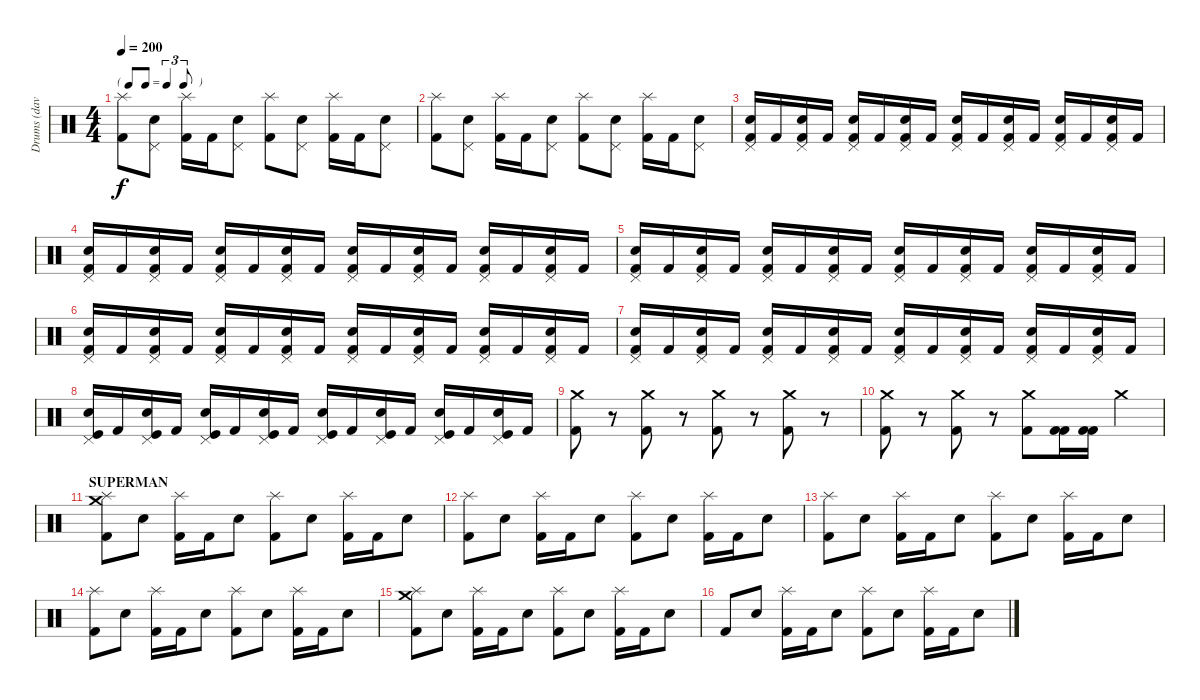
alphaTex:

\track ("Drums (dave)" "Drums (dav") {instrument percussion}
\staff {score}
\articulation defaults
\ts (4 4)
\tf triplet8th
\tempo 200
\clef neutral
\ks c
("Splash (hit)" "Kick (hit) 2").8{dy f} ("Pedal Hi-Hat (hit)" "Snare (hit) 2").8 ("Splash (hit)" "Kick (hit) 2").16 "Kick (hit) 2".16 ("Pedal Hi-Hat (hit)" "Snare (hit) 2").8 ("Splash (hit)" "Kick (hit) 2").8 ("Pedal Hi-Hat (hit)" "Snare (hit) 2").8 ("Splash (hit)" "Kick (hit) 2").16 "Kick (hit) 2".16 ("Pedal Hi-Hat (hit)" "Snare (hit) 2").8 |
("Splash (hit)" "Kick (hit) 2").8 ("Pedal Hi-Hat (hit)" "Snare (hit) 2").8 ("Splash (hit)" "Kick (hit) 2").16 "Kick (hit) 2".16 ("Pedal Hi-Hat (hit)" "Snare (hit) 2").8 ("Splash (hit)" "Kick (hit) 2").8 ("Pedal Hi-Hat (hit)" "Snare (hit) 2").8 ("Splash (hit)" "Kick (hit) 2").16 "Kick (hit) 2".16 ("Pedal Hi-Hat (hit)" "Snare (hit) 2").8 |
("Snare (hit) 2" "Pedal Hi-Hat (hit)" "Kick (hit) 2").16 "Kick (hit) 2".16 ("Snare (hit) 2" "Pedal Hi-Hat (hit)" "Kick (hit) 2").16 "Kick (hit) 2".16 ("Snare (hit) 2" "Pedal Hi-Hat (hit)" "Kick (hit) 2").16 "Kick (hit) 2".16 ("Snare (hit) 2" "Pedal Hi-Hat (hit)" "Kick (hit) 2").16 "Kick (hit) 2".16 ("Snare (hit) 2" "Pedal Hi-Hat (hit)" "Kick (hit) 2").16 "Kick (hit) 2".16 ("Snare (hit) 2" "Pedal Hi-Hat (hit)" "Kick (hit) 2").16 "Kick (hit) 2".16 ("Snare (hit) 2" "Pedal Hi-Hat (hit)" "Kick (hit) 2").16 "Kick (hit) 2".16 ("Snare (hit) 2" "Pedal Hi-Hat (hit)" "Kick (hit) 2").16 "Kick (hit) 2".16 |
("Snare (hit) 2" "Pedal Hi-Hat (hit)" "Kick (hit) 2").16 "Kick (hit) 2".16 ("Snare (hit) 2" "Pedal Hi-Hat (hit)" "Kick (hit) 2").16 "Kick (hit) 2".16 ("Snare (hit) 2" "Pedal Hi-Hat (hit)" "Kick (hit) 2").16 "Kick (hit) 2".16 ("Snare (hit) 2" "Pedal Hi-Hat (hit)" "Kick (hit) 2").16 "Kick (hit) 2".16 ("Snare (hit) 2" "Pedal Hi-Hat (hit)" "Kick (hit) 2").16 "Kick (hit) 2".16 ("Snare (hit) 2" "Pedal Hi-Hat (hit)" "Kick (hit) 2").16 "Kick (hit) 2".16 ("Snare (hit) 2" "Pedal Hi-Hat (hit)" "Kick (hit) 2").16 "Kick (hit) 2".16 ("Snare (hit) 2" "Pedal Hi-Hat (hit)" "Kick (hit) 2").16 "Kick (hit) 2".16 |
("Snare (hit) 2" "Pedal Hi-Hat (hit)" "Kick (hit) 2").16 "Kick (hit) 2".16 ("Snare (hit) 2" "Pedal Hi-Hat (hit)" "Kick (hit) 2").16 "Kick (hit) 2".16 ("Snare (hit) 2" "Pedal Hi-Hat (hit)" "Kick (hit) 2").16 "Kick (hit) 2".16 ("Snare (hit) 2" "Pedal Hi-Hat (hit)" "Kick (hit) 2").16 "Kick (hit) 2".16 ("Snare (hit) 2" "Pedal Hi-Hat (hit)" "Kick (hit) 2").16 "Kick (hit) 2".16 ("Snare (hit) 2" "Pedal Hi-Hat (hit)" "Kick (hit) 2").16 "Kick (hit) 2".16 ("Snare (hit) 2" "Pedal Hi-Hat (hit)" "Kick (hit) 2").16 "Kick (hit) 2".16 ("Snare (hit) 2" "Pedal Hi-Hat (hit)" "Kick (hit) 2").16 "Kick (hit) 2".16 |
("Snare (hit) 2" "Pedal Hi-Hat (hit)" "Kick (hit) 2").16 "Kick (hit) 2".16 ("Snare (hit) 2" "Pedal Hi-Hat (hit)" "Kick (hit) 2").16 "Kick (hit) 2".16 ("Snare (hit) 2" "Pedal Hi-Hat (hit)" "Kick (hit) 2").16 "Kick (hit) 2".16 ("Snare (hit) 2" "Pedal Hi-Hat (hit)" "Kick (hit) 2").16 "Kick (hit) 2".16 ("Snare (hit) 2" "Pedal Hi-Hat (hit)" "Kick (hit) 2").16 "Kick (hit) 2".16 ("Snare (hit) 2" "Pedal Hi-Hat (hit)" "Kick (hit) 2").16 "Kick (hit) 2".16 ("Snare (hit) 2" "Pedal Hi-Hat (hit)" "Kick (hit) 2").16 "Kick (hit) 2".16 ("Snare (hit) 2" "Pedal Hi-Hat (hit)" "Kick (hit) 2").16 "Kick (hit) 2".16 |
("Snare (hit) 2" "Pedal Hi-Hat (hit)" "Kick (hit) 2").16 "Kick (hit) 2".16 ("Snare (hit) 2" "Pedal Hi-Hat (hit)" "Kick (hit) 2").16 "Kick (hit) 2".16 ("Snare (hit) 2" "Pedal Hi-Hat (hit)" "Kick (hit) 2").16 "Kick (hit) 2".16 ("Snare (hit) 2" "Pedal Hi-Hat (hit)" "Kick (hit) 2").16 "Kick (hit) 2".16 ("Snare (hit) 2" "Pedal Hi-Hat (hit)" "Kick (hit) 2").16 "Kick (hit) 2".16 ("Snare (hit) 2" "Pedal Hi-Hat (hit)" "Kick (hit) 2").16 "Kick (hit) 2".16 ("Snare (hit) 2" "Pedal Hi-Hat (hit)" "Kick (hit) 2").16 "Kick (hit) 2".16 ("Snare (hit) 2" "Pedal Hi-Hat (hit)" "Kick (hit) 2").16 "Kick (hit) 2".16 |
("Snare (hit) 2" "Pedal Hi-Hat (hit)" "Kick (hit)").16 "Kick (hit) 2".16 ("Snare (hit) 2" "Pedal Hi-Hat (hit)" "Kick (hit)").16 "Kick (hit) 2".16 ("Snare (hit) 2" "Pedal Hi-Hat (hit)" "Kick (hit)").16 "Kick (hit) 2".16 ("Snare (hit) 2" "Pedal Hi-Hat (hit)" "Kick (hit)").16 "Kick (hit) 2".16 ("Snare (hit) 2" "Pedal Hi-Hat (hit)" "Kick (hit)").16 "Kick (hit) 2".16 ("Snare (hit) 2" "Pedal Hi-Hat (hit)" "Kick (hit)").16 "Kick (hit) 2".16 ("Snare (hit) 2" "Pedal Hi-Hat (hit)" "Kick (hit)").16 "Kick (hit) 2".16 ("Snare (hit) 2" "Pedal Hi-Hat (hit)" "Kick (hit)").16 "Kick (hit) 2".16 |
("Crash medium (hit)" "Kick (hit) 2").8 r.8 ("Crash medium (hit)" "Kick (hit) 2").8 r.8 ("Crash medium (hit)" "Kick (hit) 2").8 r.8 ("Crash medium (hit)" "Kick (hit) 2").8 r.8 |
("Crash medium (hit)" "Kick (hit) 2").8 r.8 ("Crash medium (hit)" "Kick (hit) 2").8 r.8 ("Crash medium (hit)" "Kick (hit) 2").8 ("Kick (hit) 2" "Kick (hit) 2").16 ("Kick (hit) 2" "Kick (hit) 2").16 "Crash medium (hit)".4 |
\section ("" "SUPERMAN")
("Crash medium (hit)" "Splash (hit)" "Kick (hit) 2").8 "Snare (hit) 2".8 ("Splash (hit)" "Kick (hit) 2").16 "Kick (hit) 2".16 "Snare (hit) 2".8 ("Splash (hit)" "Kick (hit) 2").8 "Snare (hit) 2".8 ("Splash (hit)" "Kick (hit) 2").16 "Kick (hit) 2".16 "Snare (hit) 2".8 |
("Splash (hit)" "Kick (hit) 2").8 "Snare (hit) 2".8 ("Splash (hit)" "Kick (hit) 2").16 "Kick (hit) 2".16 "Snare (hit) 2".8 ("Splash (hit)" "Kick (hit) 2").8 "Snare (hit) 2".8 ("Splash (hit)" "Kick (hit) 2").16 "Kick (hit) 2".16 "Snare (hit) 2".8 |
("Splash (hit)" "Kick (hit) 2").8 "Snare (hit) 2".8 ("Splash (hit)" "Kick (hit) 2").16 "Kick (hit) 2".16 "Snare (hit) 2".8 ("Splash (hit)" "Kick (hit) 2").8 "Snare (hit) 2".8 ("Splash (hit)" "Kick (hit) 2").16 "Kick (hit) 2".16 "Snare (hit) 2".8 |
("Splash (hit)" "Kick (hit) 2").8 "Snare (hit) 2".8 ("Splash (hit)" "Kick (hit) 2").16 "Kick (hit) 2".16 "Snare (hit) 2".8 ("Splash (hit)" "Kick (hit) 2").8 "Snare (hit) 2".8 ("Splash (hit)" "Kick (hit) 2").16 "Kick (hit) 2".16 "Snare (hit) 2".8 |
("Crash medium (hit)" "Splash (hit)" "Kick (hit) 2").8 "Snare (hit) 2".8 ("Splash (hit)" "Kick (hit) 2").16 "Kick (hit) 2".16 "Snare (hit) 2".8 ("Splash (hit)" "Kick (hit) 2").8 "Snare (hit) 2".8 ("Splash (hit)" "Kick (hit) 2").16 "Kick (hit) 2".16 "Snare (hit) 2".8 |
"Kick (hit) 2".8 "Snare (hit) 2".8 ("Splash (hit)" "Kick (hit) 2").16 "Kick (hit) 2".16 "Snare (hit) 2".8 ("Splash (hit)" "Kick (hit) 2").8 "Snare (hit) 2".8 ("Splash (hit)" "Kick (hit) 2").16 "Kick (hit) 2".16 "Snare (hit) 2".8
